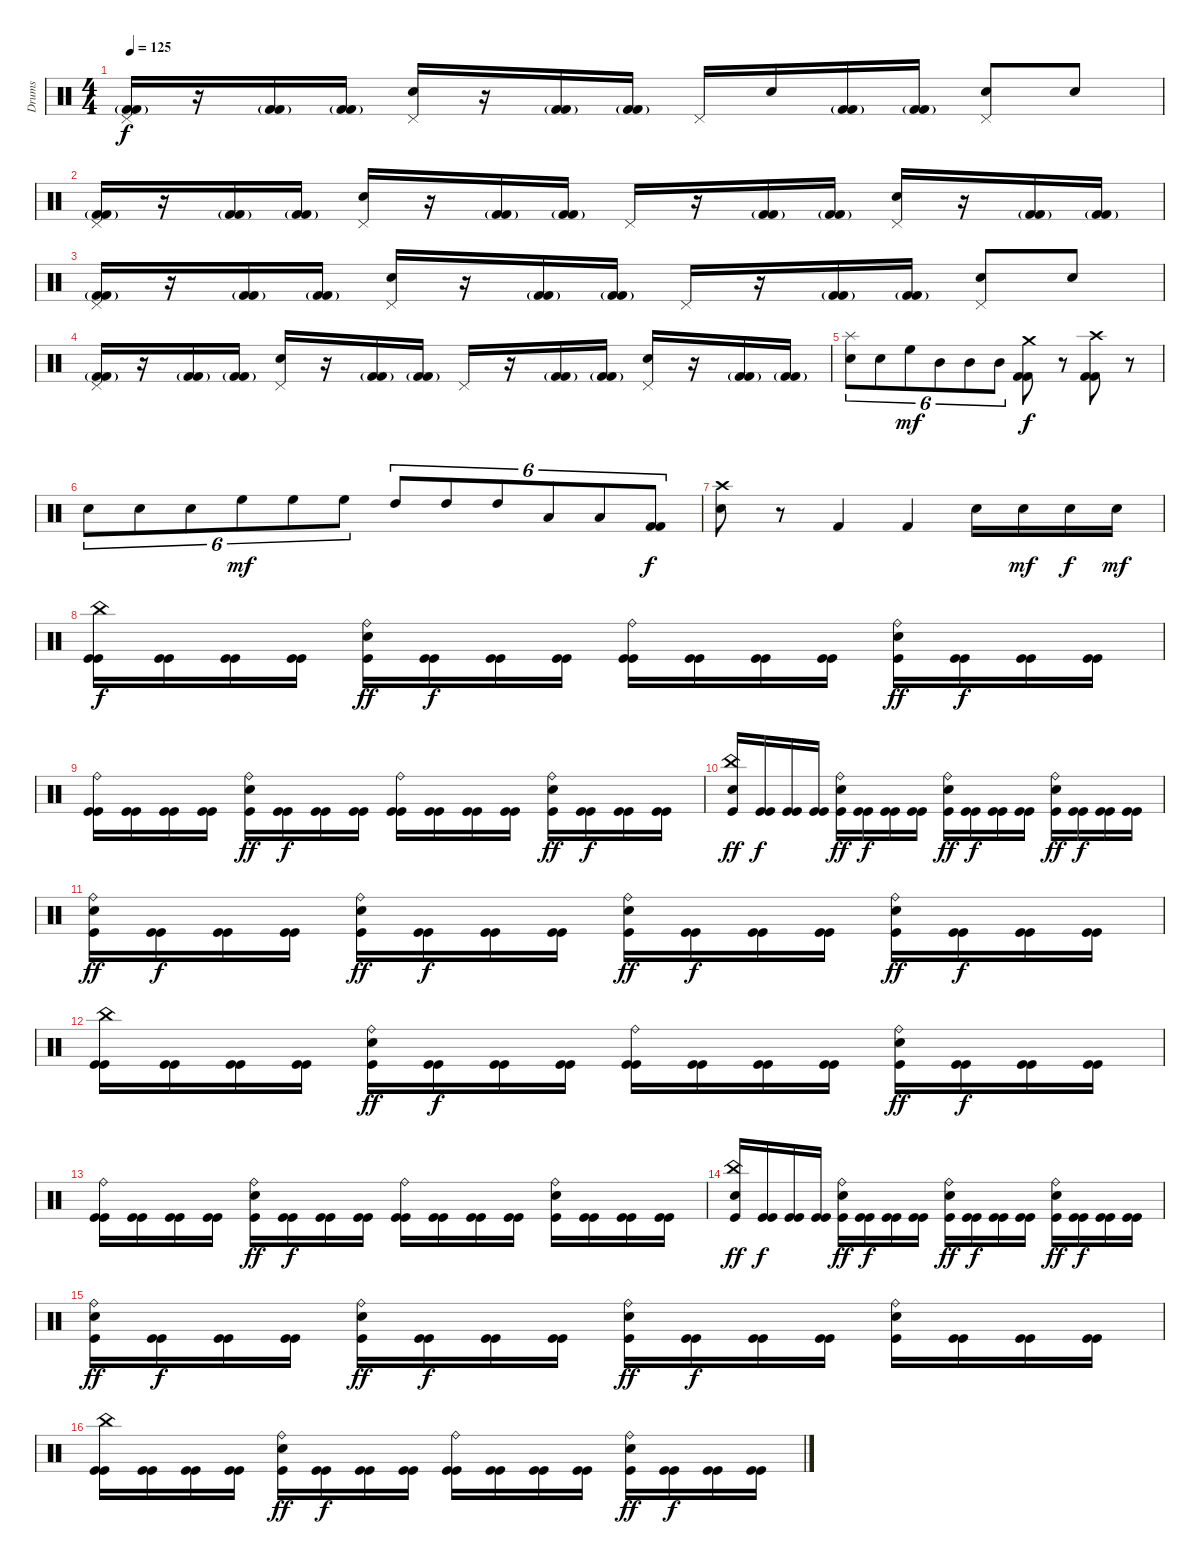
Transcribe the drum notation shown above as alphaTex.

\track ("Drums" "Drums") {instrument percussion}
\staff {score}
\articulation defaults
\ts (4 4)
\tempo 125
\clef neutral
\ks c
("Pedal Hi-Hat (hit)" "Kick (hit) 2"{g} "Kick (hit) 2").16{dy f} r.16 ("Kick (hit) 2"{g} "Kick (hit) 2").16 ("Kick (hit) 2"{g} "Kick (hit) 2").16 ("Pedal Hi-Hat (hit)" "Electric Snare (hit)").16 r.16 ("Kick (hit) 2"{g} "Kick (hit) 2").16 ("Kick (hit) 2"{g} "Kick (hit) 2").16 "Pedal Hi-Hat (hit)".16 "Electric Snare (hit)".16 ("Kick (hit) 2"{g} "Kick (hit) 2").16 ("Kick (hit) 2"{g} "Kick (hit) 2").16 ("Pedal Hi-Hat (hit)" "Electric Snare (hit)").8 "Electric Snare (hit)".8 |
("Pedal Hi-Hat (hit)" "Kick (hit) 2"{g} "Kick (hit) 2").16 r.16 ("Kick (hit) 2"{g} "Kick (hit) 2").16 ("Kick (hit) 2"{g} "Kick (hit) 2").16 ("Pedal Hi-Hat (hit)" "Electric Snare (hit)").16 r.16 ("Kick (hit) 2"{g} "Kick (hit) 2").16 ("Kick (hit) 2"{g} "Kick (hit) 2").16 "Pedal Hi-Hat (hit)".16 r.16 ("Kick (hit) 2"{g} "Kick (hit) 2").16 ("Kick (hit) 2"{g} "Kick (hit) 2").16 ("Pedal Hi-Hat (hit)" "Electric Snare (hit)").16 r.16 ("Kick (hit) 2"{g} "Kick (hit) 2").16 ("Kick (hit) 2"{g} "Kick (hit) 2").16 |
("Pedal Hi-Hat (hit)" "Kick (hit) 2"{g} "Kick (hit) 2").16 r.16 ("Kick (hit) 2"{g} "Kick (hit) 2").16 ("Kick (hit) 2"{g} "Kick (hit) 2").16 ("Pedal Hi-Hat (hit)" "Electric Snare (hit)").16 r.16 ("Kick (hit) 2"{g} "Kick (hit) 2").16 ("Kick (hit) 2"{g} "Kick (hit) 2").16 "Pedal Hi-Hat (hit)".16 r.16 ("Kick (hit) 2"{g} "Kick (hit) 2").16 ("Kick (hit) 2"{g} "Kick (hit) 2").16 ("Pedal Hi-Hat (hit)" "Electric Snare (hit)").8 "Electric Snare (hit)".8 |
("Pedal Hi-Hat (hit)" "Kick (hit) 2"{g} "Kick (hit) 2").16 r.16 ("Kick (hit) 2"{g} "Kick (hit) 2").16 ("Kick (hit) 2"{g} "Kick (hit) 2").16 ("Pedal Hi-Hat (hit)" "Electric Snare (hit)").16 r.16 ("Kick (hit) 2"{g} "Kick (hit) 2").16 ("Kick (hit) 2"{g} "Kick (hit) 2").16 "Pedal Hi-Hat (hit)".16 r.16 ("Kick (hit) 2"{g} "Kick (hit) 2").16 ("Kick (hit) 2"{g} "Kick (hit) 2").16 ("Pedal Hi-Hat (hit)" "Electric Snare (hit)").16 r.16 ("Kick (hit) 2"{g} "Kick (hit) 2").16 ("Kick (hit) 2"{g} "Kick (hit) 2").16 |
("Splash (hit)" "Electric Snare (hit)").8{tu (6 4)} "Electric Snare (hit)".8{tu (6 4)} "High Floor Tom (hit)".8{tu (6 4) dy mf} "Mid Tom (hit)".8{tu (6 4)} "Mid Tom (hit)".8{tu (6 4)} "Mid Tom (hit)".8{tu (6 4)} ("Crash medium (hit)" "Kick (hit) 2" "Kick (hit) 2").8{dy f} r.8 ("Crash high (hit)" "Kick (hit) 2" "Kick (hit) 2").8 r.8 |
"Electric Snare (hit)".8{tu (6 4)} "Electric Snare (hit)".8{tu (6 4)} "Electric Snare (hit)".8{tu (6 4)} "High Floor Tom (hit)".8{tu (6 4) dy mf} "High Floor Tom (hit)".8{tu (6 4)} "High Floor Tom (hit)".8{tu (6 4)} "High Tom (hit)".8{tu (6 4)} "High Tom (hit)".8{tu (6 4)} "High Tom (hit)".8{tu (6 4)} "Low Tom (hit)".8{tu (6 4)} "Low Tom (hit)".8{tu (6 4)} ("Kick (hit) 2" "Kick (hit) 2").8{tu (6 4) dy f} |
("Crash high (hit)" "Electric Snare (hit)").8 r.8 "Kick (hit) 2".4 "Kick (hit) 2".4 "Electric Snare (hit)".16 "Electric Snare (hit)".16{dy mf} "Electric Snare (hit)".16{dy f} "Electric Snare (hit)".16{dy mf} |
("China (hit)" "Kick (hit)" "Kick (hit)").16{dy f} ("Kick (hit)" "Kick (hit)").16 ("Kick (hit)" "Kick (hit)").16 ("Kick (hit)" "Kick (hit)").16 ("Ride (bell)" "Electric Snare (hit)" "Kick (hit)").16{dy ff} ("Kick (hit)" "Kick (hit)").16{dy f} ("Kick (hit)" "Kick (hit)").16 ("Kick (hit)" "Kick (hit)").16 ("Ride (bell)" "Kick (hit)" "Kick (hit)").16 ("Kick (hit)" "Kick (hit)").16 ("Kick (hit)" "Kick (hit)").16 ("Kick (hit)" "Kick (hit)").16 ("Ride (bell)" "Electric Snare (hit)" "Kick (hit)").16{dy ff} ("Kick (hit)" "Kick (hit)").16{dy f} ("Kick (hit)" "Kick (hit)").16 ("Kick (hit)" "Kick (hit)").16 |
("Ride (bell)" "Kick (hit)" "Kick (hit)").16 ("Kick (hit)" "Kick (hit)").16 ("Kick (hit)" "Kick (hit)").16 ("Kick (hit)" "Kick (hit)").16 ("Ride (bell)" "Electric Snare (hit)" "Kick (hit)").16{dy ff} ("Kick (hit)" "Kick (hit)").16{dy f} ("Kick (hit)" "Kick (hit)").16 ("Kick (hit)" "Kick (hit)").16 ("Ride (bell)" "Kick (hit)" "Kick (hit)").16 ("Kick (hit)" "Kick (hit)").16 ("Kick (hit)" "Kick (hit)").16 ("Kick (hit)" "Kick (hit)").16 ("Ride (bell)" "Electric Snare (hit)" "Kick (hit)").16{dy ff} ("Kick (hit)" "Kick (hit)").16{dy f} ("Kick (hit)" "Kick (hit)").16 ("Kick (hit)" "Kick (hit)").16 |
("China (hit)" "Electric Snare (hit)" "Kick (hit)").16{dy ff} ("Kick (hit)" "Kick (hit)").16{dy f} ("Kick (hit)" "Kick (hit)").16 ("Kick (hit)" "Kick (hit)").16 ("Ride (bell)" "Electric Snare (hit)" "Kick (hit)").16{dy ff} ("Kick (hit)" "Kick (hit)").16{dy f} ("Kick (hit)" "Kick (hit)").16 ("Kick (hit)" "Kick (hit)").16 ("Ride (bell)" "Electric Snare (hit)" "Kick (hit)").16{dy ff} ("Kick (hit)" "Kick (hit)").16{dy f} ("Kick (hit)" "Kick (hit)").16 ("Kick (hit)" "Kick (hit)").16 ("Ride (bell)" "Electric Snare (hit)" "Kick (hit)").16{dy ff} ("Kick (hit)" "Kick (hit)").16{dy f} ("Kick (hit)" "Kick (hit)").16 ("Kick (hit)" "Kick (hit)").16 |
("Ride (bell)" "Electric Snare (hit)" "Kick (hit)").16{dy ff} ("Kick (hit)" "Kick (hit)").16{dy f} ("Kick (hit)" "Kick (hit)").16 ("Kick (hit)" "Kick (hit)").16 ("Ride (bell)" "Electric Snare (hit)" "Kick (hit)").16{dy ff} ("Kick (hit)" "Kick (hit)").16{dy f} ("Kick (hit)" "Kick (hit)").16 ("Kick (hit)" "Kick (hit)").16 ("Ride (bell)" "Electric Snare (hit)" "Kick (hit)").16{dy ff} ("Kick (hit)" "Kick (hit)").16{dy f} ("Kick (hit)" "Kick (hit)").16 ("Kick (hit)" "Kick (hit)").16 ("Ride (bell)" "Electric Snare (hit)" "Kick (hit)").16{dy ff} ("Kick (hit)" "Kick (hit)").16{dy f} ("Kick (hit)" "Kick (hit)").16 ("Kick (hit)" "Kick (hit)").16 |
("China (hit)" "Kick (hit)" "Kick (hit)").16 ("Kick (hit)" "Kick (hit)").16 ("Kick (hit)" "Kick (hit)").16 ("Kick (hit)" "Kick (hit)").16 ("Ride (bell)" "Electric Snare (hit)" "Kick (hit)").16{dy ff} ("Kick (hit)" "Kick (hit)").16{dy f} ("Kick (hit)" "Kick (hit)").16 ("Kick (hit)" "Kick (hit)").16 ("Ride (bell)" "Kick (hit)" "Kick (hit)").16 ("Kick (hit)" "Kick (hit)").16 ("Kick (hit)" "Kick (hit)").16 ("Kick (hit)" "Kick (hit)").16 ("Ride (bell)" "Electric Snare (hit)" "Kick (hit)").16{dy ff} ("Kick (hit)" "Kick (hit)").16{dy f} ("Kick (hit)" "Kick (hit)").16 ("Kick (hit)" "Kick (hit)").16 |
("Ride (bell)" "Kick (hit)" "Kick (hit)").16 ("Kick (hit)" "Kick (hit)").16 ("Kick (hit)" "Kick (hit)").16 ("Kick (hit)" "Kick (hit)").16 ("Ride (bell)" "Electric Snare (hit)" "Kick (hit)").16{dy ff} ("Kick (hit)" "Kick (hit)").16{dy f} ("Kick (hit)" "Kick (hit)").16 ("Kick (hit)" "Kick (hit)").16 ("Ride (bell)" "Kick (hit)" "Kick (hit)").16 ("Kick (hit)" "Kick (hit)").16 ("Kick (hit)" "Kick (hit)").16 ("Kick (hit)" "Kick (hit)").16 ("Ride (bell)" "Electric Snare (hit)" "Kick (hit)").16 ("Kick (hit)" "Kick (hit)").16 ("Kick (hit)" "Kick (hit)").16 ("Kick (hit)" "Kick (hit)").16 |
("China (hit)" "Electric Snare (hit)" "Kick (hit)").16{dy ff} ("Kick (hit)" "Kick (hit)").16{dy f} ("Kick (hit)" "Kick (hit)").16 ("Kick (hit)" "Kick (hit)").16 ("Ride (bell)" "Electric Snare (hit)" "Kick (hit)").16{dy ff} ("Kick (hit)" "Kick (hit)").16{dy f} ("Kick (hit)" "Kick (hit)").16 ("Kick (hit)" "Kick (hit)").16 ("Ride (bell)" "Electric Snare (hit)" "Kick (hit)").16{dy ff} ("Kick (hit)" "Kick (hit)").16{dy f} ("Kick (hit)" "Kick (hit)").16 ("Kick (hit)" "Kick (hit)").16 ("Ride (bell)" "Electric Snare (hit)" "Kick (hit)").16{dy ff} ("Kick (hit)" "Kick (hit)").16{dy f} ("Kick (hit)" "Kick (hit)").16 ("Kick (hit)" "Kick (hit)").16 |
("Ride (bell)" "Electric Snare (hit)" "Kick (hit)").16{dy ff} ("Kick (hit)" "Kick (hit)").16{dy f} ("Kick (hit)" "Kick (hit)").16 ("Kick (hit)" "Kick (hit)").16 ("Ride (bell)" "Electric Snare (hit)" "Kick (hit)").16{dy ff} ("Kick (hit)" "Kick (hit)").16{dy f} ("Kick (hit)" "Kick (hit)").16 ("Kick (hit)" "Kick (hit)").16 ("Ride (bell)" "Electric Snare (hit)" "Kick (hit)").16{dy ff} ("Kick (hit)" "Kick (hit)").16{dy f} ("Kick (hit)" "Kick (hit)").16 ("Kick (hit)" "Kick (hit)").16 ("Ride (bell)" "Electric Snare (hit)" "Kick (hit)").16 ("Kick (hit)" "Kick (hit)").16 ("Kick (hit)" "Kick (hit)").16 ("Kick (hit)" "Kick (hit)").16 |
("China (hit)" "Kick (hit)" "Kick (hit)").16 ("Kick (hit)" "Kick (hit)").16 ("Kick (hit)" "Kick (hit)").16 ("Kick (hit)" "Kick (hit)").16 ("Ride (bell)" "Electric Snare (hit)" "Kick (hit)").16{dy ff} ("Kick (hit)" "Kick (hit)").16{dy f} ("Kick (hit)" "Kick (hit)").16 ("Kick (hit)" "Kick (hit)").16 ("Ride (bell)" "Kick (hit)" "Kick (hit)").16 ("Kick (hit)" "Kick (hit)").16 ("Kick (hit)" "Kick (hit)").16 ("Kick (hit)" "Kick (hit)").16 ("Ride (bell)" "Electric Snare (hit)" "Kick (hit)").16{dy ff} ("Kick (hit)" "Kick (hit)").16{dy f} ("Kick (hit)" "Kick (hit)").16 ("Kick (hit)" "Kick (hit)").16
